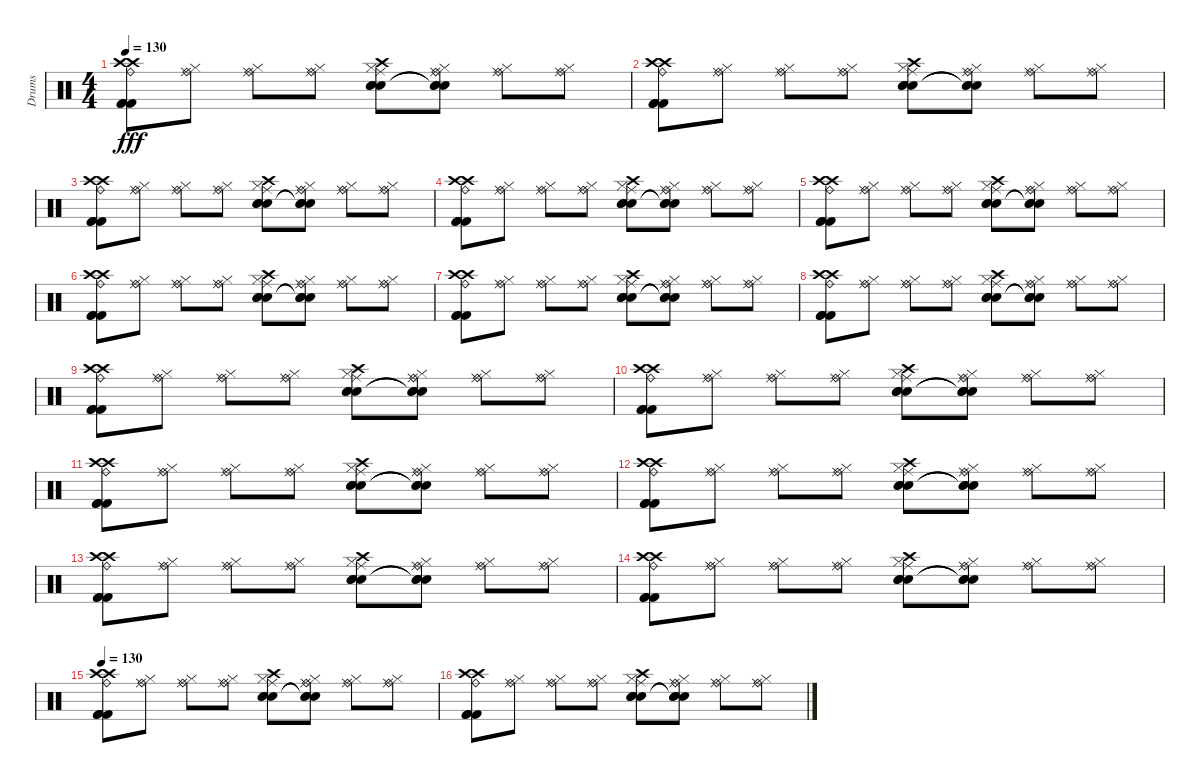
\track ("Drums" "Drums") {instrument percussion}
\staff {score}
\articulation defaults
\ts (4 4)
\tempo 130
\clef neutral
\ks c
("Ride (bell)" "Crash high (hit)" "Crash high (hit)" "Kick (hit) 2" "Kick (hit) 2" "Kick (hit) 2").8{dy fff} ("Ride (bell)" "Ride (middle)" "Hi-Hat (closed)").8 ("Ride (bell)" "Ride (middle)" "Hi-Hat (closed)").8 ("Ride (bell)" "Ride (middle)" "Hi-Hat (closed)").8 ("Crash high (hit)" "Ride (middle)" "Hi-Hat (closed)" "Snare (hit) 2" "Snare (hit) 2" "Snare (hit) 2").8 ("Ride (bell)" "Ride (middle)" "Hi-Hat (closed)" "Snare (hit)"{t} "Snare (hit)"{t} "Snare (hit)"{t}).8 ("Ride (bell)" "Ride (middle)" "Hi-Hat (closed)").8 ("Ride (bell)" "Ride (middle)" "Hi-Hat (closed)").8 |
("Ride (bell)" "Crash high (hit)" "Crash high (hit)" "Kick (hit) 2" "Kick (hit) 2" "Kick (hit) 2").8 ("Ride (bell)" "Ride (middle)" "Hi-Hat (closed)").8 ("Ride (bell)" "Ride (middle)" "Hi-Hat (closed)").8 ("Ride (bell)" "Ride (middle)" "Hi-Hat (closed)").8 ("Crash high (hit)" "Ride (middle)" "Hi-Hat (closed)" "Snare (hit) 2" "Snare (hit) 2" "Snare (hit) 2").8 ("Ride (bell)" "Ride (middle)" "Hi-Hat (closed)" "Snare (hit)"{t} "Snare (hit)"{t} "Snare (hit)"{t}).8 ("Ride (bell)" "Ride (middle)" "Hi-Hat (closed)").8 ("Ride (bell)" "Ride (middle)" "Hi-Hat (closed)").8 |
("Ride (bell)" "Crash high (hit)" "Crash high (hit)" "Kick (hit) 2" "Kick (hit) 2" "Kick (hit) 2").8 ("Ride (bell)" "Ride (middle)" "Hi-Hat (closed)").8 ("Ride (bell)" "Ride (middle)" "Hi-Hat (closed)").8 ("Ride (bell)" "Ride (middle)" "Hi-Hat (closed)").8 ("Crash high (hit)" "Ride (middle)" "Hi-Hat (closed)" "Snare (hit) 2" "Snare (hit) 2" "Snare (hit) 2").8 ("Ride (bell)" "Ride (middle)" "Hi-Hat (closed)" "Snare (hit)"{t} "Snare (hit)"{t} "Snare (hit)"{t}).8 ("Ride (bell)" "Ride (middle)" "Hi-Hat (closed)").8 ("Ride (bell)" "Ride (middle)" "Hi-Hat (closed)").8 |
("Ride (bell)" "Crash high (hit)" "Crash high (hit)" "Kick (hit) 2" "Kick (hit) 2" "Kick (hit) 2").8 ("Ride (bell)" "Ride (middle)" "Hi-Hat (closed)").8 ("Ride (bell)" "Ride (middle)" "Hi-Hat (closed)").8 ("Ride (bell)" "Ride (middle)" "Hi-Hat (closed)").8 ("Crash high (hit)" "Ride (middle)" "Hi-Hat (closed)" "Snare (hit) 2" "Snare (hit) 2" "Snare (hit) 2").8 ("Ride (bell)" "Ride (middle)" "Hi-Hat (closed)" "Snare (hit)"{t} "Snare (hit)"{t} "Snare (hit)"{t}).8 ("Ride (bell)" "Ride (middle)" "Hi-Hat (closed)").8 ("Ride (bell)" "Ride (middle)" "Hi-Hat (closed)").8 |
("Ride (bell)" "Crash high (hit)" "Crash high (hit)" "Kick (hit) 2" "Kick (hit) 2" "Kick (hit) 2").8 ("Ride (bell)" "Ride (middle)" "Hi-Hat (closed)").8 ("Ride (bell)" "Ride (middle)" "Hi-Hat (closed)").8 ("Ride (bell)" "Ride (middle)" "Hi-Hat (closed)").8 ("Crash high (hit)" "Ride (middle)" "Hi-Hat (closed)" "Snare (hit) 2" "Snare (hit) 2" "Snare (hit) 2").8 ("Ride (bell)" "Ride (middle)" "Hi-Hat (closed)" "Snare (hit)"{t} "Snare (hit)"{t} "Snare (hit)"{t}).8 ("Ride (bell)" "Ride (middle)" "Hi-Hat (closed)").8 ("Ride (bell)" "Ride (middle)" "Hi-Hat (closed)").8 |
("Ride (bell)" "Crash high (hit)" "Crash high (hit)" "Kick (hit) 2" "Kick (hit) 2" "Kick (hit) 2").8 ("Ride (bell)" "Ride (middle)" "Hi-Hat (closed)").8 ("Ride (bell)" "Ride (middle)" "Hi-Hat (closed)").8 ("Ride (bell)" "Ride (middle)" "Hi-Hat (closed)").8 ("Crash high (hit)" "Ride (middle)" "Hi-Hat (closed)" "Snare (hit) 2" "Snare (hit) 2" "Snare (hit) 2").8 ("Ride (bell)" "Ride (middle)" "Hi-Hat (closed)" "Snare (hit)"{t} "Snare (hit)"{t} "Snare (hit)"{t}).8 ("Ride (bell)" "Ride (middle)" "Hi-Hat (closed)").8 ("Ride (bell)" "Ride (middle)" "Hi-Hat (closed)").8 |
("Ride (bell)" "Crash high (hit)" "Crash high (hit)" "Kick (hit) 2" "Kick (hit) 2" "Kick (hit) 2").8 ("Ride (bell)" "Ride (middle)" "Hi-Hat (closed)").8 ("Ride (bell)" "Ride (middle)" "Hi-Hat (closed)").8 ("Ride (bell)" "Ride (middle)" "Hi-Hat (closed)").8 ("Crash high (hit)" "Ride (middle)" "Hi-Hat (closed)" "Snare (hit) 2" "Snare (hit) 2" "Snare (hit) 2").8 ("Ride (bell)" "Ride (middle)" "Hi-Hat (closed)" "Snare (hit)"{t} "Snare (hit)"{t} "Snare (hit)"{t}).8 ("Ride (bell)" "Ride (middle)" "Hi-Hat (closed)").8 ("Ride (bell)" "Ride (middle)" "Hi-Hat (closed)").8 |
("Ride (bell)" "Crash high (hit)" "Crash high (hit)" "Kick (hit) 2" "Kick (hit) 2" "Kick (hit) 2").8 ("Ride (bell)" "Ride (middle)" "Hi-Hat (closed)").8 ("Ride (bell)" "Ride (middle)" "Hi-Hat (closed)").8 ("Ride (bell)" "Ride (middle)" "Hi-Hat (closed)").8 ("Crash high (hit)" "Ride (middle)" "Hi-Hat (closed)" "Snare (hit) 2" "Snare (hit) 2" "Snare (hit) 2").8 ("Ride (bell)" "Ride (middle)" "Hi-Hat (closed)" "Snare (hit)"{t} "Snare (hit)"{t} "Snare (hit)"{t}).8 ("Ride (bell)" "Ride (middle)" "Hi-Hat (closed)").8 ("Ride (bell)" "Ride (middle)" "Hi-Hat (closed)").8 |
("Ride (bell)" "Crash high (hit)" "Crash high (hit)" "Kick (hit) 2" "Kick (hit) 2" "Kick (hit) 2").8 ("Ride (bell)" "Ride (middle)" "Hi-Hat (closed)").8 ("Ride (bell)" "Ride (middle)" "Hi-Hat (closed)").8 ("Ride (bell)" "Ride (middle)" "Hi-Hat (closed)").8 ("Crash high (hit)" "Ride (middle)" "Hi-Hat (closed)" "Snare (hit) 2" "Snare (hit) 2" "Snare (hit) 2").8 ("Ride (bell)" "Ride (middle)" "Hi-Hat (closed)" "Snare (hit)"{t} "Snare (hit)"{t} "Snare (hit)"{t}).8 ("Ride (bell)" "Ride (middle)" "Hi-Hat (closed)").8 ("Ride (bell)" "Ride (middle)" "Hi-Hat (closed)").8 |
("Ride (bell)" "Crash high (hit)" "Crash high (hit)" "Kick (hit) 2" "Kick (hit) 2" "Kick (hit) 2").8 ("Ride (bell)" "Ride (middle)" "Hi-Hat (closed)").8 ("Ride (bell)" "Ride (middle)" "Hi-Hat (closed)").8 ("Ride (bell)" "Ride (middle)" "Hi-Hat (closed)").8 ("Crash high (hit)" "Ride (middle)" "Hi-Hat (closed)" "Snare (hit) 2" "Snare (hit) 2" "Snare (hit) 2").8 ("Ride (bell)" "Ride (middle)" "Hi-Hat (closed)" "Snare (hit)"{t} "Snare (hit)"{t} "Snare (hit)"{t}).8 ("Ride (bell)" "Ride (middle)" "Hi-Hat (closed)").8 ("Ride (bell)" "Ride (middle)" "Hi-Hat (closed)").8 |
("Ride (bell)" "Crash high (hit)" "Crash high (hit)" "Kick (hit) 2" "Kick (hit) 2" "Kick (hit) 2").8 ("Ride (bell)" "Ride (middle)" "Hi-Hat (closed)").8 ("Ride (bell)" "Ride (middle)" "Hi-Hat (closed)").8 ("Ride (bell)" "Ride (middle)" "Hi-Hat (closed)").8 ("Crash high (hit)" "Ride (middle)" "Hi-Hat (closed)" "Snare (hit) 2" "Snare (hit) 2" "Snare (hit) 2").8 ("Ride (bell)" "Ride (middle)" "Hi-Hat (closed)" "Snare (hit)"{t} "Snare (hit)"{t} "Snare (hit)"{t}).8 ("Ride (bell)" "Ride (middle)" "Hi-Hat (closed)").8 ("Ride (bell)" "Ride (middle)" "Hi-Hat (closed)").8 |
("Ride (bell)" "Crash high (hit)" "Crash high (hit)" "Kick (hit) 2" "Kick (hit) 2" "Kick (hit) 2").8 ("Ride (bell)" "Ride (middle)" "Hi-Hat (closed)").8 ("Ride (bell)" "Ride (middle)" "Hi-Hat (closed)").8 ("Ride (bell)" "Ride (middle)" "Hi-Hat (closed)").8 ("Crash high (hit)" "Ride (middle)" "Hi-Hat (closed)" "Snare (hit) 2" "Snare (hit) 2" "Snare (hit) 2").8 ("Ride (bell)" "Ride (middle)" "Hi-Hat (closed)" "Snare (hit)"{t} "Snare (hit)"{t} "Snare (hit)"{t}).8 ("Ride (bell)" "Ride (middle)" "Hi-Hat (closed)").8 ("Ride (bell)" "Ride (middle)" "Hi-Hat (closed)").8 |
("Ride (bell)" "Crash high (hit)" "Crash high (hit)" "Kick (hit) 2" "Kick (hit) 2" "Kick (hit) 2").8 ("Ride (bell)" "Ride (middle)" "Hi-Hat (closed)").8 ("Ride (bell)" "Ride (middle)" "Hi-Hat (closed)").8 ("Ride (bell)" "Ride (middle)" "Hi-Hat (closed)").8 ("Crash high (hit)" "Ride (middle)" "Hi-Hat (closed)" "Snare (hit) 2" "Snare (hit) 2" "Snare (hit) 2").8 ("Ride (bell)" "Ride (middle)" "Hi-Hat (closed)" "Snare (hit)"{t} "Snare (hit)"{t} "Snare (hit)"{t}).8 ("Ride (bell)" "Ride (middle)" "Hi-Hat (closed)").8 ("Ride (bell)" "Ride (middle)" "Hi-Hat (closed)").8 |
("Ride (bell)" "Crash high (hit)" "Crash high (hit)" "Kick (hit) 2" "Kick (hit) 2" "Kick (hit) 2").8 ("Ride (bell)" "Ride (middle)" "Hi-Hat (closed)").8 ("Ride (bell)" "Ride (middle)" "Hi-Hat (closed)").8 ("Ride (bell)" "Ride (middle)" "Hi-Hat (closed)").8 ("Crash high (hit)" "Ride (middle)" "Hi-Hat (closed)" "Snare (hit) 2" "Snare (hit) 2" "Snare (hit) 2").8 ("Ride (bell)" "Ride (middle)" "Hi-Hat (closed)" "Snare (hit)"{t} "Snare (hit)"{t} "Snare (hit)"{t}).8 ("Ride (bell)" "Ride (middle)" "Hi-Hat (closed)").8 ("Ride (bell)" "Ride (middle)" "Hi-Hat (closed)").8 |
\tempo 130
("Ride (bell)" "Crash high (hit)" "Crash high (hit)" "Kick (hit) 2" "Kick (hit) 2" "Kick (hit) 2").8 ("Ride (bell)" "Ride (middle)" "Hi-Hat (closed)").8 ("Ride (bell)" "Ride (middle)" "Hi-Hat (closed)").8 ("Ride (bell)" "Ride (middle)" "Hi-Hat (closed)").8 ("Crash high (hit)" "Ride (middle)" "Hi-Hat (closed)" "Snare (hit) 2" "Snare (hit) 2" "Snare (hit) 2").8 ("Ride (bell)" "Ride (middle)" "Hi-Hat (closed)" "Snare (hit)"{t} "Snare (hit)"{t} "Snare (hit)"{t}).8 ("Ride (bell)" "Ride (middle)" "Hi-Hat (closed)").8 ("Ride (bell)" "Ride (middle)" "Hi-Hat (closed)").8 |
("Ride (bell)" "Crash high (hit)" "Crash high (hit)" "Kick (hit) 2" "Kick (hit) 2" "Kick (hit) 2").8 ("Ride (bell)" "Ride (middle)" "Hi-Hat (closed)").8 ("Ride (bell)" "Ride (middle)" "Hi-Hat (closed)").8 ("Ride (bell)" "Ride (middle)" "Hi-Hat (closed)").8 ("Crash high (hit)" "Ride (middle)" "Hi-Hat (closed)" "Snare (hit) 2" "Snare (hit) 2" "Snare (hit) 2").8 ("Ride (bell)" "Ride (middle)" "Hi-Hat (closed)" "Snare (hit)"{t} "Snare (hit)"{t} "Snare (hit)"{t}).8 ("Ride (bell)" "Ride (middle)" "Hi-Hat (closed)").8 ("Ride (bell)" "Ride (middle)" "Hi-Hat (closed)").8
